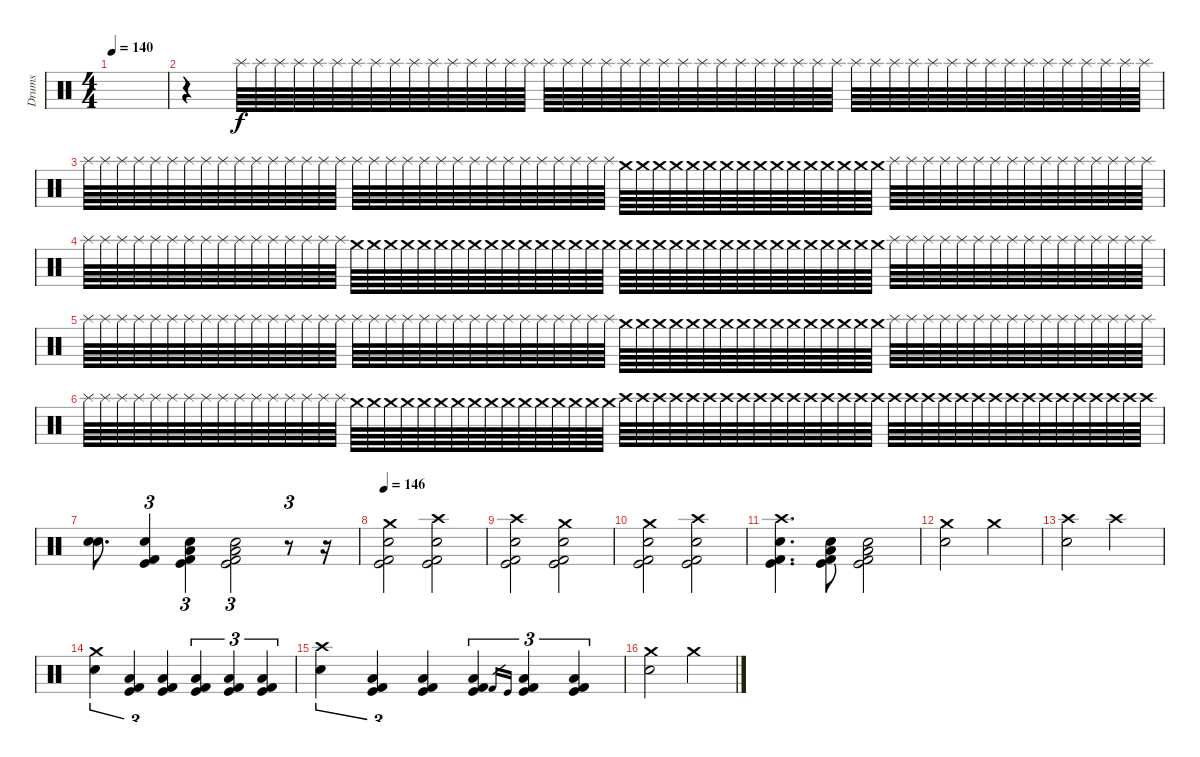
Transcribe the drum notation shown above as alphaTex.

\track ("Drums" "Drums") {instrument percussion}
\staff {score}
\articulation defaults
\ts (4 4)
\tempo 140
\clef neutral
\ks c
|
r.4 "Splash (hit)".64{volume 5} "Splash (hit)".64 "Splash (hit)".64 "Splash (hit)".64 "Splash (hit)".64 "Splash (hit)".64 "Splash (hit)".64 "Splash (hit)".64 "Splash (hit)".64 "Splash (hit)".64 "Splash (hit)".64 "Splash (hit)".64 "Splash (hit)".64 "Splash (hit)".64 "Splash (hit)".64 "Splash (hit)".64 "Splash (hit)".64 "Splash (hit)".64 "Splash (hit)".64 "Splash (hit)".64 "Splash (hit)".64 "Splash (hit)".64 "Splash (hit)".64 "Splash (hit)".64 "Splash (hit)".64 "Splash (hit)".64 "Splash (hit)".64 "Splash (hit)".64 "Splash (hit)".64 "Splash (hit)".64 "Splash (hit)".64 "Splash (hit)".64 "Splash (hit)".64{volume 3} "Splash (hit)".64 "Splash (hit)".64 "Splash (hit)".64 "Splash (hit)".64 "Splash (hit)".64 "Splash (hit)".64 "Splash (hit)".64 "Splash (hit)".64 "Splash (hit)".64 "Splash (hit)".64 "Splash (hit)".64 "Splash (hit)".64 "Splash (hit)".64 "Splash (hit)".64 "Splash (hit)".64 |
"Splash (hit)".64{volume 7} "Splash (hit)".64 "Splash (hit)".64 "Splash (hit)".64 "Splash (hit)".64 "Splash (hit)".64 "Splash (hit)".64 "Splash (hit)".64 "Splash (hit)".64 "Splash (hit)".64 "Splash (hit)".64 "Splash (hit)".64 "Splash (hit)".64 "Splash (hit)".64 "Splash (hit)".64 "Splash (hit)".64 "Splash (hit)".64 "Splash (hit)".64 "Splash (hit)".64 "Splash (hit)".64 "Splash (hit)".64 "Splash (hit)".64 "Splash (hit)".64 "Splash (hit)".64 "Splash (hit)".64 "Splash (hit)".64 "Splash (hit)".64 "Splash (hit)".64 "Splash (hit)".64 "Splash (hit)".64 "Splash (hit)".64 "Splash (hit)".64 "Crash medium (hit)".64{volume 5} "Crash medium (hit)".64 "Crash medium (hit)".64 "Crash medium (hit)".64 "Crash medium (hit)".64 "Crash medium (hit)".64 "Crash medium (hit)".64 "Crash medium (hit)".64 "Crash medium (hit)".64 "Crash medium (hit)".64 "Crash medium (hit)".64 "Crash medium (hit)".64 "Crash medium (hit)".64 "Crash medium (hit)".64 "Crash medium (hit)".64 "Crash medium (hit)".64 "Splash (hit)".64 "Splash (hit)".64 "Splash (hit)".64 "Splash (hit)".64 "Splash (hit)".64 "Splash (hit)".64 "Splash (hit)".64 "Splash (hit)".64 "Splash (hit)".64 "Splash (hit)".64 "Splash (hit)".64 "Splash (hit)".64 "Splash (hit)".64 "Splash (hit)".64 "Splash (hit)".64 "Splash (hit)".64 |
"Splash (hit)".64{volume 7} "Splash (hit)".64 "Splash (hit)".64 "Splash (hit)".64 "Splash (hit)".64 "Splash (hit)".64 "Splash (hit)".64 "Splash (hit)".64 "Splash (hit)".64 "Splash (hit)".64 "Splash (hit)".64 "Splash (hit)".64 "Splash (hit)".64 "Splash (hit)".64 "Splash (hit)".64 "Splash (hit)".64 "Crash medium (hit)".64 "Crash medium (hit)".64 "Crash medium (hit)".64 "Crash medium (hit)".64 "Crash medium (hit)".64 "Crash medium (hit)".64 "Crash medium (hit)".64 "Crash medium (hit)".64 "Crash medium (hit)".64 "Crash medium (hit)".64 "Crash medium (hit)".64 "Crash medium (hit)".64 "Crash medium (hit)".64 "Crash medium (hit)".64 "Crash medium (hit)".64 "Crash medium (hit)".64 "Crash medium (hit)".64{volume 5} "Crash medium (hit)".64 "Crash medium (hit)".64 "Crash medium (hit)".64 "Crash medium (hit)".64 "Crash medium (hit)".64 "Crash medium (hit)".64 "Crash medium (hit)".64 "Crash medium (hit)".64 "Crash medium (hit)".64 "Crash medium (hit)".64 "Crash medium (hit)".64 "Crash medium (hit)".64 "Crash medium (hit)".64 "Crash medium (hit)".64 "Crash medium (hit)".64 "Splash (hit)".64 "Splash (hit)".64 "Splash (hit)".64 "Splash (hit)".64 "Splash (hit)".64 "Splash (hit)".64 "Splash (hit)".64 "Splash (hit)".64 "Splash (hit)".64 "Splash (hit)".64 "Splash (hit)".64 "Splash (hit)".64 "Splash (hit)".64 "Splash (hit)".64 "Splash (hit)".64 "Splash (hit)".64 |
"Splash (hit)".64{volume 7} "Splash (hit)".64 "Splash (hit)".64 "Splash (hit)".64 "Splash (hit)".64 "Splash (hit)".64 "Splash (hit)".64 "Splash (hit)".64 "Splash (hit)".64 "Splash (hit)".64 "Splash (hit)".64 "Splash (hit)".64 "Splash (hit)".64 "Splash (hit)".64 "Splash (hit)".64 "Splash (hit)".64 "Splash (hit)".64 "Splash (hit)".64 "Splash (hit)".64 "Splash (hit)".64 "Splash (hit)".64 "Splash (hit)".64 "Splash (hit)".64 "Splash (hit)".64 "Splash (hit)".64 "Splash (hit)".64 "Splash (hit)".64 "Splash (hit)".64 "Splash (hit)".64 "Splash (hit)".64 "Splash (hit)".64 "Splash (hit)".64 "Crash medium (hit)".64{volume 5} "Crash medium (hit)".64 "Crash medium (hit)".64 "Crash medium (hit)".64 "Crash medium (hit)".64 "Crash medium (hit)".64 "Crash medium (hit)".64 "Crash medium (hit)".64 "Crash medium (hit)".64 "Crash medium (hit)".64 "Crash medium (hit)".64 "Crash medium (hit)".64 "Crash medium (hit)".64 "Crash medium (hit)".64 "Crash medium (hit)".64 "Crash medium (hit)".64 "Splash (hit)".64 "Splash (hit)".64 "Splash (hit)".64 "Splash (hit)".64 "Splash (hit)".64 "Splash (hit)".64 "Splash (hit)".64 "Splash (hit)".64 "Splash (hit)".64 "Splash (hit)".64 "Splash (hit)".64 "Splash (hit)".64 "Splash (hit)".64 "Splash (hit)".64 "Splash (hit)".64 "Splash (hit)".64 |
"Splash (hit)".64{volume 10} "Splash (hit)".64 "Splash (hit)".64 "Splash (hit)".64 "Splash (hit)".64 "Splash (hit)".64 "Splash (hit)".64 "Splash (hit)".64 "Splash (hit)".64 "Splash (hit)".64 "Splash (hit)".64 "Splash (hit)".64 "Splash (hit)".64 "Splash (hit)".64 "Splash (hit)".64 "Splash (hit)".64 "Crash medium (hit)".64 "Crash medium (hit)".64 "Crash medium (hit)".64 "Crash medium (hit)".64 "Crash medium (hit)".64 "Crash medium (hit)".64 "Crash medium (hit)".64 "Crash medium (hit)".64 "Crash medium (hit)".64 "Crash medium (hit)".64 "Crash medium (hit)".64 "Crash medium (hit)".64 "Crash medium (hit)".64 "Crash medium (hit)".64 "Crash medium (hit)".64 "Crash medium (hit)".64 "Crash high (hit)".64 "Crash high (hit)".64 "Crash high (hit)".64 "Crash high (hit)".64 "Crash high (hit)".64 "Crash high (hit)".64 "Crash high (hit)".64 "Crash high (hit)".64 "Crash high (hit)".64 "Crash high (hit)".64 "Crash high (hit)".64 "Crash high (hit)".64 "Crash high (hit)".64 "Crash high (hit)".64 "Crash high (hit)".64 "Crash high (hit)".64 "Crash high (hit)".64 "Crash high (hit)".64 "Crash high (hit)".64 "Crash high (hit)".64 "Crash high (hit)".64 "Crash high (hit)".64 "Crash high (hit)".64 "Crash high (hit)".64 "Crash high (hit)".64 "Crash high (hit)".64 "Crash high (hit)".64 "Crash high (hit)".64 "Crash high (hit)".64 "Crash high (hit)".64 "Crash high (hit)".64 "Crash high (hit)".64 |
("Electric Snare (hit)" "Snare (hit) 2").8{d} ("Snare (hit) 2" "Kick (hit) 2" "Kick (hit)").4{tu (3 2)} ("Low Floor Tom (hit)" "Snare (hit) 2" "Kick (hit) 2" "Kick (hit)").4{tu (3 2)} ("Low Floor Tom (hit)" "Snare (hit) 2" "Kick (hit) 2" "Kick (hit)").2{tu (3 2)} r.8{tu (3 2)} r.16 |
\tempo 146
("Crash medium (hit)" "Electric Snare (hit)" "Kick (hit) 2" "Kick (hit)").2 ("Crash high (hit)" "Snare (hit) 2" "Kick (hit) 2" "Kick (hit)").2 |
("Crash high (hit)" "Snare (hit) 2" "Kick (hit) 2" "Kick (hit)").2 ("Crash medium (hit)" "Electric Snare (hit)" "Kick (hit) 2" "Kick (hit)").2 |
("Crash medium (hit)" "Electric Snare (hit)" "Kick (hit) 2" "Kick (hit)").2 ("Crash high (hit)" "Snare (hit) 2" "Kick (hit) 2" "Kick (hit)").2 |
("Crash high (hit)" "Snare (hit) 2" "Kick (hit) 2" "Kick (hit)").4{d} ("Low Floor Tom (hit)" "Snare (hit) 2" "Kick (hit) 2" "Kick (hit)").8 ("Low Floor Tom (hit)" "Snare (hit) 2" "Kick (hit) 2" "Kick (hit)").2 |
("Crash medium (hit)" "Electric Snare (hit)").2 "Crash medium (hit)".2 |
("Crash high (hit)" "Snare (hit) 2").2 "Crash high (hit)".2 |
("Crash medium (hit)" "Electric Snare (hit)").4{tu (3 2)} ("Low Floor Tom (hit)" "Kick (hit) 2" "Kick (hit)").4{tu (3 2)} ("Low Floor Tom (hit)" "Kick (hit) 2" "Kick (hit)").4{tu (3 2)} ("Low Floor Tom (hit)" "Kick (hit) 2" "Kick (hit)").4{tu (3 2)} ("Low Floor Tom (hit)" "Kick (hit) 2" "Kick (hit)").4{tu (3 2)} ("Low Floor Tom (hit)" "Kick (hit) 2" "Kick (hit)").4{tu (3 2)} |
("Crash high (hit)" "Snare (hit) 2").4{tu (3 2)} ("Low Floor Tom (hit)" "Kick (hit) 2" "Kick (hit)").4{tu (3 2)} ("Low Floor Tom (hit)" "Kick (hit) 2" "Kick (hit)").4{tu (3 2)} ("Low Floor Tom (hit)" "Kick (hit) 2" "Kick (hit)").4{tu (3 2)} "Kick (hit) 2".16{gr} "Kick (hit)".16{gr} ("Low Floor Tom (hit)" "Kick (hit) 2" "Kick (hit)").4{tu (3 2)} ("Low Floor Tom (hit)" "Kick (hit) 2" "Kick (hit)").4{tu (3 2)} |
("Crash medium (hit)" "Electric Snare (hit)").2 "Crash medium (hit)".2
